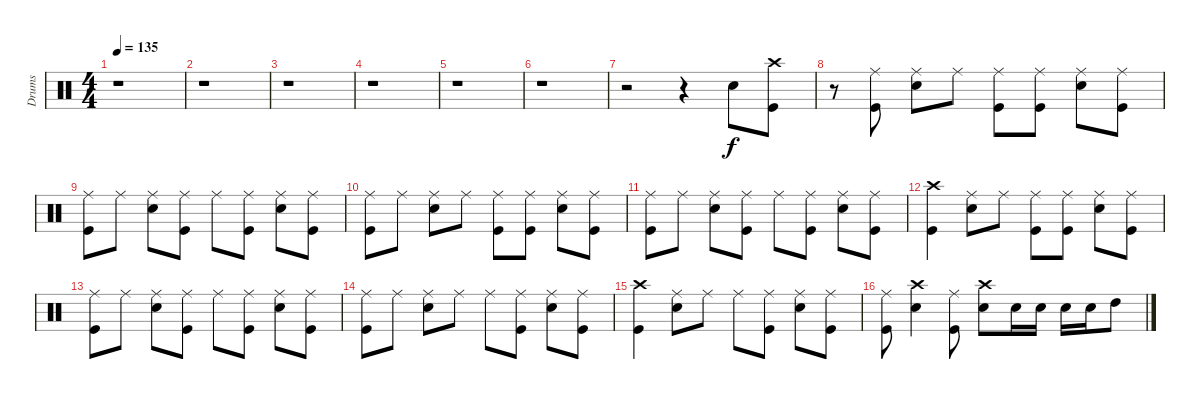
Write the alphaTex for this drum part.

\track ("Drums" "Drums") {instrument percussion}
\staff {score}
\articulation defaults
\ts (4 4)
\tempo 135
\clef neutral
\ks c
r.1{dy f} |
r.1 |
r.1 |
r.1 |
r.1 |
r.1 |
r.2 r.4 "Electric Snare (hit)".8 ("Kick (hit)" "Crash high (hit)").8 |
r.8 ("Kick (hit)" "Ride (middle)").8 ("Electric Snare (hit)" "Ride (middle)").8 "Ride (middle)".8 ("Kick (hit)" "Ride (middle)").8 ("Kick (hit)" "Ride (middle)").8 ("Electric Snare (hit)" "Ride (middle)").8 ("Kick (hit)" "Ride (middle)").8 |
("Kick (hit)" "Ride (middle)").8 "Ride (middle)".8 ("Electric Snare (hit)" "Ride (middle)").8 ("Kick (hit)" "Ride (middle)").8 "Ride (middle)".8 ("Kick (hit)" "Ride (middle)").8 ("Electric Snare (hit)" "Ride (middle)").8 ("Kick (hit)" "Ride (middle)").8 |
("Kick (hit)" "Ride (middle)").8 "Ride (middle)".8 ("Electric Snare (hit)" "Ride (middle)").8 "Ride (middle)".8 ("Kick (hit)" "Ride (middle)").8 ("Kick (hit)" "Ride (middle)").8 ("Electric Snare (hit)" "Ride (middle)").8 ("Kick (hit)" "Ride (middle)").8 |
("Kick (hit)" "Ride (middle)").8 "Ride (middle)".8 ("Electric Snare (hit)" "Ride (middle)").8 ("Kick (hit)" "Ride (middle)").8 "Ride (middle)".8 ("Kick (hit)" "Ride (middle)").8 ("Electric Snare (hit)" "Ride (middle)").8 ("Kick (hit)" "Ride (middle)").8 |
("Kick (hit)" "Crash high (hit)").4 ("Electric Snare (hit)" "Ride (middle)").8 "Ride (middle)".8 ("Kick (hit)" "Ride (middle)").8 ("Kick (hit)" "Ride (middle)").8 ("Electric Snare (hit)" "Ride (middle)").8 ("Kick (hit)" "Ride (middle)").8 |
("Kick (hit)" "Ride (middle)").8 "Ride (middle)".8 ("Electric Snare (hit)" "Ride (middle)").8 ("Kick (hit)" "Ride (middle)").8 "Ride (middle)".8 ("Kick (hit)" "Ride (middle)").8 ("Electric Snare (hit)" "Ride (middle)").8 ("Kick (hit)" "Ride (middle)").8 |
("Kick (hit)" "Ride (middle)").8 "Ride (middle)".8 ("Electric Snare (hit)" "Ride (middle)").8 "Ride (middle)".8 "Ride (middle)".8 ("Kick (hit)" "Ride (middle)").8 ("Electric Snare (hit)" "Ride (middle)").8 ("Kick (hit)" "Ride (middle)").8 |
("Kick (hit)" "Crash high (hit)").4 ("Electric Snare (hit)" "Ride (middle)").8 "Ride (middle)".8 "Ride (middle)".8 ("Kick (hit)" "Ride (middle)").8 ("Electric Snare (hit)" "Ride (middle)").8 ("Kick (hit)" "Ride (middle)").8 |
("Kick (hit)" "Ride (middle)").8 ("Electric Snare (hit)" "Crash high (hit)").4 ("Kick (hit)" "Ride (middle)").8 ("Electric Snare (hit)" "Crash high (hit)").8 "Electric Snare (hit)".16 "Electric Snare (hit)".16 "Electric Snare (hit)".16 "Electric Snare (hit)".16 "High Tom (hit)".8
